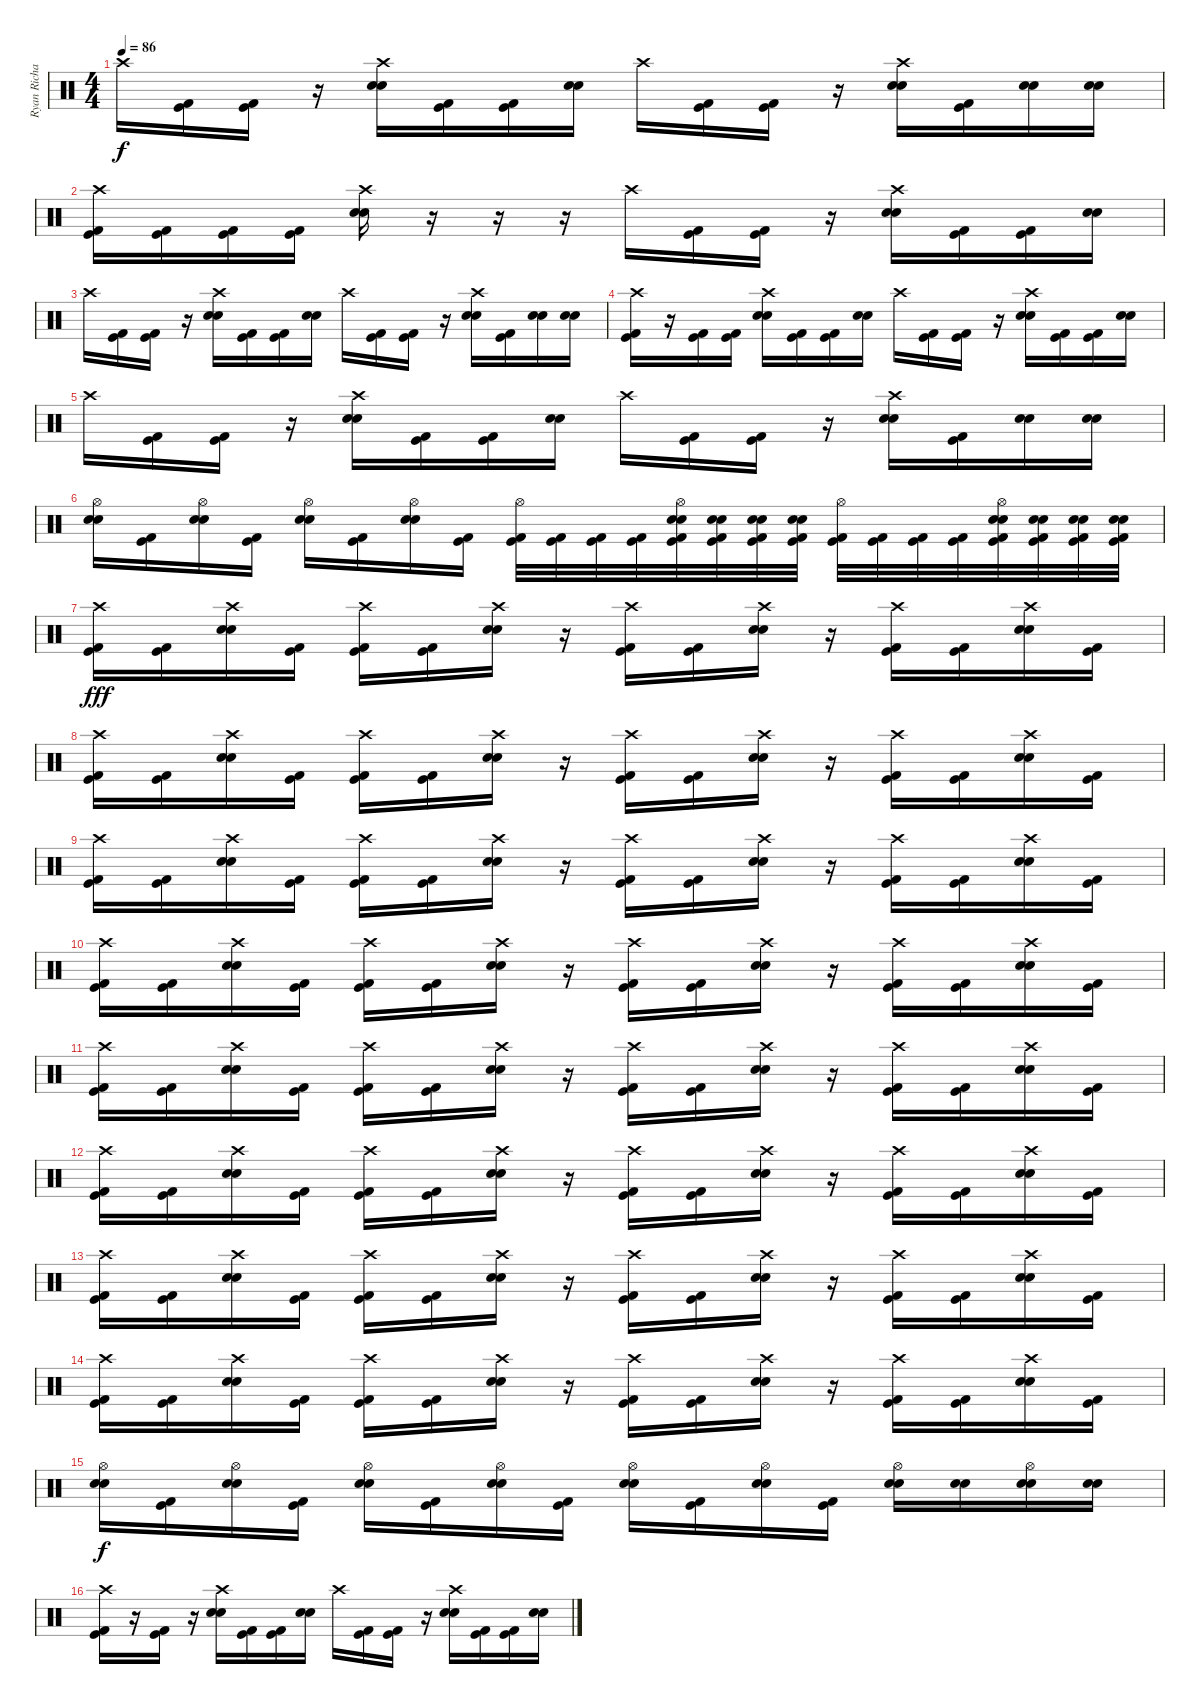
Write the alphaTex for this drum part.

\track ("Ryan Richards" "Ryan Richa") {instrument percussion}
\staff {score}
\articulation defaults
\ts (4 4)
\tempo 86
\clef neutral
\ks c "Crash high (hit)".16{dy f}
("Kick (hit)" "Kick (hit) 2").16 ("Kick (hit)" "Kick (hit) 2").16 r.16 ("Snare (hit) 2" "Crash high (hit)" "Electric Snare (hit)").16 ("Kick (hit)" "Kick (hit) 2").16 ("Kick (hit)" "Kick (hit) 2").16 ("Snare (hit) 2" "Electric Snare (hit)").16 "Crash high (hit)".16 ("Kick (hit)" "Kick (hit) 2").16 ("Kick (hit)" "Kick (hit) 2").16 r.16 ("Snare (hit) 2" "Crash high (hit)" "Electric Snare (hit)").16 ("Kick (hit)" "Kick (hit) 2").16 ("Snare (hit) 2" "Electric Snare (hit)").16 ("Snare (hit) 2" "Electric Snare (hit)").16 |
("Kick (hit)" "Crash high (hit)" "Kick (hit) 2").16 ("Kick (hit)" "Kick (hit) 2").16 ("Kick (hit)" "Kick (hit) 2").16 ("Kick (hit)" "Kick (hit) 2").16 ("Snare (hit) 2" "Crash high (hit)" "Electric Snare (hit)").16 r.16 r.16 r.16 "Crash high (hit)".16 ("Kick (hit)" "Kick (hit) 2").16 ("Kick (hit)" "Kick (hit) 2").16 r.16 ("Snare (hit) 2" "Crash high (hit)" "Electric Snare (hit)").16 ("Kick (hit)" "Kick (hit) 2").16 ("Kick (hit)" "Kick (hit) 2").16 ("Snare (hit) 2" "Electric Snare (hit)").16 |
"Crash high (hit)".16 ("Kick (hit)" "Kick (hit) 2").16 ("Kick (hit)" "Kick (hit) 2").16 r.16 ("Snare (hit) 2" "Crash high (hit)" "Electric Snare (hit)").16 ("Kick (hit)" "Kick (hit) 2").16 ("Kick (hit)" "Kick (hit) 2").16 ("Snare (hit) 2" "Electric Snare (hit)").16 "Crash high (hit)".16 ("Kick (hit)" "Kick (hit) 2").16 ("Kick (hit)" "Kick (hit) 2").16 r.16 ("Snare (hit) 2" "Crash high (hit)" "Electric Snare (hit)").16 ("Kick (hit)" "Kick (hit) 2").16 ("Snare (hit) 2" "Electric Snare (hit)").16 ("Snare (hit) 2" "Electric Snare (hit)").16 |
("Kick (hit)" "Crash high (hit)" "Kick (hit) 2").16 r.16 ("Kick (hit)" "Kick (hit) 2").16 ("Kick (hit)" "Kick (hit) 2").16 ("Snare (hit) 2" "Crash high (hit)" "Electric Snare (hit)").16 ("Kick (hit)" "Kick (hit) 2").16 ("Kick (hit)" "Kick (hit) 2").16 ("Snare (hit) 2" "Electric Snare (hit)").16 "Crash high (hit)".16 ("Kick (hit)" "Kick (hit) 2").16 ("Kick (hit)" "Kick (hit) 2").16 r.16 ("Snare (hit) 2" "Crash high (hit)" "Electric Snare (hit)").16 ("Kick (hit)" "Kick (hit) 2").16 ("Kick (hit)" "Kick (hit) 2").16 ("Snare (hit) 2" "Electric Snare (hit)").16 |
"Crash high (hit)".16 ("Kick (hit)" "Kick (hit) 2").16 ("Kick (hit)" "Kick (hit) 2").16 r.16 ("Snare (hit) 2" "Crash high (hit)" "Electric Snare (hit)").16 ("Kick (hit)" "Kick (hit) 2").16 ("Kick (hit)" "Kick (hit) 2").16 ("Snare (hit) 2" "Electric Snare (hit)").16 "Crash high (hit)".16 ("Kick (hit)" "Kick (hit) 2").16 ("Kick (hit)" "Kick (hit) 2").16 r.16 ("Snare (hit) 2" "Crash high (hit)" "Electric Snare (hit)").16 ("Kick (hit)" "Kick (hit) 2").16 ("Snare (hit) 2" "Electric Snare (hit)").16 ("Snare (hit) 2" "Electric Snare (hit)").16 |
("Snare (hit) 2" "Hi-Hat (open)" "Electric Snare (hit)").16 ("Kick (hit)" "Kick (hit) 2").16 ("Snare (hit) 2" "Hi-Hat (open)" "Electric Snare (hit)").16 ("Kick (hit)" "Kick (hit) 2").16 ("Snare (hit) 2" "Hi-Hat (open)" "Electric Snare (hit)").16 ("Kick (hit)" "Kick (hit) 2").16 ("Snare (hit) 2" "Hi-Hat (open)" "Electric Snare (hit)").16 ("Kick (hit)" "Kick (hit) 2").16 ("Kick (hit)" "Hi-Hat (open)" "Kick (hit) 2").32 ("Kick (hit)" "Kick (hit) 2").32 ("Kick (hit)" "Kick (hit) 2").32 ("Kick (hit)" "Kick (hit) 2").32 ("Kick (hit)" "Snare (hit) 2" "Hi-Hat (open)" "Electric Snare (hit)" "Kick (hit) 2").32 ("Kick (hit)" "Snare (hit) 2" "Electric Snare (hit)" "Kick (hit) 2").32 ("Kick (hit)" "Snare (hit) 2" "Electric Snare (hit)" "Kick (hit) 2").32 ("Kick (hit)" "Snare (hit) 2" "Electric Snare (hit)" "Kick (hit) 2").32 ("Kick (hit)" "Hi-Hat (open)" "Kick (hit) 2").32 ("Kick (hit)" "Kick (hit) 2").32 ("Kick (hit)" "Kick (hit) 2").32 ("Kick (hit)" "Kick (hit) 2").32 ("Kick (hit)" "Snare (hit) 2" "Hi-Hat (open)" "Electric Snare (hit)" "Kick (hit) 2").32 ("Kick (hit)" "Snare (hit) 2" "Electric Snare (hit)" "Kick (hit) 2").32 ("Kick (hit)" "Snare (hit) 2" "Electric Snare (hit)" "Kick (hit) 2").32 ("Kick (hit)" "Snare (hit) 2" "Electric Snare (hit)" "Kick (hit) 2").32 |
("Kick (hit)" "Crash high (hit)" "Kick (hit) 2").16{dy fff} ("Kick (hit)" "Kick (hit) 2").16 ("Snare (hit) 2" "Crash high (hit)" "Electric Snare (hit)").16 ("Kick (hit)" "Kick (hit) 2").16 ("Kick (hit)" "Crash high (hit)" "Kick (hit) 2").16 ("Kick (hit)" "Kick (hit) 2").16 ("Snare (hit) 2" "Crash high (hit)" "Electric Snare (hit)").16 r.16 ("Kick (hit)" "Crash high (hit)" "Kick (hit) 2").16 ("Kick (hit)" "Kick (hit) 2").16 ("Snare (hit) 2" "Crash high (hit)" "Electric Snare (hit)").16 r.16 ("Kick (hit)" "Crash high (hit)" "Kick (hit) 2").16 ("Kick (hit)" "Kick (hit) 2").16 ("Snare (hit) 2" "Crash high (hit)" "Electric Snare (hit)").16 ("Kick (hit)" "Kick (hit) 2").16 |
("Kick (hit)" "Crash high (hit)" "Kick (hit) 2").16 ("Kick (hit)" "Kick (hit) 2").16 ("Snare (hit) 2" "Crash high (hit)" "Electric Snare (hit)").16 ("Kick (hit)" "Kick (hit) 2").16 ("Kick (hit)" "Crash high (hit)" "Kick (hit) 2").16 ("Kick (hit)" "Kick (hit) 2").16 ("Snare (hit) 2" "Crash high (hit)" "Electric Snare (hit)").16 r.16 ("Kick (hit)" "Crash high (hit)" "Kick (hit) 2").16 ("Kick (hit)" "Kick (hit) 2").16 ("Snare (hit) 2" "Crash high (hit)" "Electric Snare (hit)").16 r.16 ("Kick (hit)" "Crash high (hit)" "Kick (hit) 2").16 ("Kick (hit)" "Kick (hit) 2").16 ("Snare (hit) 2" "Crash high (hit)" "Electric Snare (hit)").16 ("Kick (hit)" "Kick (hit) 2").16 |
("Kick (hit)" "Crash high (hit)" "Kick (hit) 2").16 ("Kick (hit)" "Kick (hit) 2").16 ("Snare (hit) 2" "Crash high (hit)" "Electric Snare (hit)").16 ("Kick (hit)" "Kick (hit) 2").16 ("Kick (hit)" "Crash high (hit)" "Kick (hit) 2").16 ("Kick (hit)" "Kick (hit) 2").16 ("Snare (hit) 2" "Crash high (hit)" "Electric Snare (hit)").16 r.16 ("Kick (hit)" "Crash high (hit)" "Kick (hit) 2").16 ("Kick (hit)" "Kick (hit) 2").16 ("Snare (hit) 2" "Crash high (hit)" "Electric Snare (hit)").16 r.16 ("Kick (hit)" "Crash high (hit)" "Kick (hit) 2").16 ("Kick (hit)" "Kick (hit) 2").16 ("Snare (hit) 2" "Crash high (hit)" "Electric Snare (hit)").16 ("Kick (hit)" "Kick (hit) 2").16 |
("Kick (hit)" "Crash high (hit)" "Kick (hit) 2").16 ("Kick (hit)" "Kick (hit) 2").16 ("Snare (hit) 2" "Crash high (hit)" "Electric Snare (hit)").16 ("Kick (hit)" "Kick (hit) 2").16 ("Kick (hit)" "Crash high (hit)" "Kick (hit) 2").16 ("Kick (hit)" "Kick (hit) 2").16 ("Snare (hit) 2" "Crash high (hit)" "Electric Snare (hit)").16 r.16 ("Kick (hit)" "Crash high (hit)" "Kick (hit) 2").16 ("Kick (hit)" "Kick (hit) 2").16 ("Snare (hit) 2" "Crash high (hit)" "Electric Snare (hit)").16 r.16 ("Kick (hit)" "Crash high (hit)" "Kick (hit) 2").16 ("Kick (hit)" "Kick (hit) 2").16 ("Snare (hit) 2" "Crash high (hit)" "Electric Snare (hit)").16 ("Kick (hit)" "Kick (hit) 2").16 |
("Kick (hit)" "Crash high (hit)" "Kick (hit) 2").16 ("Kick (hit)" "Kick (hit) 2").16 ("Snare (hit) 2" "Crash high (hit)" "Electric Snare (hit)").16 ("Kick (hit)" "Kick (hit) 2").16 ("Kick (hit)" "Crash high (hit)" "Kick (hit) 2").16 ("Kick (hit)" "Kick (hit) 2").16 ("Snare (hit) 2" "Crash high (hit)" "Electric Snare (hit)").16 r.16 ("Kick (hit)" "Crash high (hit)" "Kick (hit) 2").16 ("Kick (hit)" "Kick (hit) 2").16 ("Snare (hit) 2" "Crash high (hit)" "Electric Snare (hit)").16 r.16 ("Kick (hit)" "Crash high (hit)" "Kick (hit) 2").16 ("Kick (hit)" "Kick (hit) 2").16 ("Snare (hit) 2" "Crash high (hit)" "Electric Snare (hit)").16 ("Kick (hit)" "Kick (hit) 2").16 |
("Kick (hit)" "Crash high (hit)" "Kick (hit) 2").16 ("Kick (hit)" "Kick (hit) 2").16 ("Snare (hit) 2" "Crash high (hit)" "Electric Snare (hit)").16 ("Kick (hit)" "Kick (hit) 2").16 ("Kick (hit)" "Crash high (hit)" "Kick (hit) 2").16 ("Kick (hit)" "Kick (hit) 2").16 ("Snare (hit) 2" "Crash high (hit)" "Electric Snare (hit)").16 r.16 ("Kick (hit)" "Crash high (hit)" "Kick (hit) 2").16 ("Kick (hit)" "Kick (hit) 2").16 ("Snare (hit) 2" "Crash high (hit)" "Electric Snare (hit)").16 r.16 ("Kick (hit)" "Crash high (hit)" "Kick (hit) 2").16 ("Kick (hit)" "Kick (hit) 2").16 ("Snare (hit) 2" "Crash high (hit)" "Electric Snare (hit)").16 ("Kick (hit)" "Kick (hit) 2").16 |
("Kick (hit)" "Crash high (hit)" "Kick (hit) 2").16 ("Kick (hit)" "Kick (hit) 2").16 ("Snare (hit) 2" "Crash high (hit)" "Electric Snare (hit)").16 ("Kick (hit)" "Kick (hit) 2").16 ("Kick (hit)" "Crash high (hit)" "Kick (hit) 2").16 ("Kick (hit)" "Kick (hit) 2").16 ("Snare (hit) 2" "Crash high (hit)" "Electric Snare (hit)").16 r.16 ("Kick (hit)" "Crash high (hit)" "Kick (hit) 2").16 ("Kick (hit)" "Kick (hit) 2").16 ("Snare (hit) 2" "Crash high (hit)" "Electric Snare (hit)").16 r.16 ("Kick (hit)" "Crash high (hit)" "Kick (hit) 2").16 ("Kick (hit)" "Kick (hit) 2").16 ("Snare (hit) 2" "Crash high (hit)" "Electric Snare (hit)").16 ("Kick (hit)" "Kick (hit) 2").16 |
("Kick (hit)" "Crash high (hit)" "Kick (hit) 2").16 ("Kick (hit)" "Kick (hit) 2").16 ("Snare (hit) 2" "Crash high (hit)" "Electric Snare (hit)").16 ("Kick (hit)" "Kick (hit) 2").16 ("Kick (hit)" "Crash high (hit)" "Kick (hit) 2").16 ("Kick (hit)" "Kick (hit) 2").16 ("Snare (hit) 2" "Crash high (hit)" "Electric Snare (hit)").16 r.16 ("Kick (hit)" "Crash high (hit)" "Kick (hit) 2").16 ("Kick (hit)" "Kick (hit) 2").16 ("Snare (hit) 2" "Crash high (hit)" "Electric Snare (hit)").16 r.16 ("Kick (hit)" "Crash high (hit)" "Kick (hit) 2").16 ("Kick (hit)" "Kick (hit) 2").16 ("Snare (hit) 2" "Crash high (hit)" "Electric Snare (hit)").16 ("Kick (hit)" "Kick (hit) 2").16 |
("Snare (hit) 2" "Hi-Hat (open)" "Electric Snare (hit)").16{dy f} ("Kick (hit)" "Kick (hit) 2").16 ("Snare (hit) 2" "Hi-Hat (open)" "Electric Snare (hit)").16 ("Kick (hit)" "Kick (hit) 2").16 ("Snare (hit) 2" "Hi-Hat (open)" "Electric Snare (hit)").16 ("Kick (hit)" "Kick (hit) 2").16 ("Snare (hit) 2" "Hi-Hat (open)" "Electric Snare (hit)").16 ("Kick (hit)" "Kick (hit) 2").16 ("Snare (hit) 2" "Hi-Hat (open)" "Electric Snare (hit)").16 ("Kick (hit)" "Kick (hit) 2").16 ("Snare (hit) 2" "Hi-Hat (open)" "Electric Snare (hit)").16 ("Kick (hit)" "Kick (hit) 2").16 ("Snare (hit) 2" "Hi-Hat (open)" "Electric Snare (hit)").16 ("Snare (hit) 2" "Electric Snare (hit)").16 ("Snare (hit) 2" "Hi-Hat (open)" "Electric Snare (hit)").16 ("Snare (hit) 2" "Electric Snare (hit)").16 |
("Kick (hit)" "Crash high (hit)" "Kick (hit) 2").16 r.16 ("Kick (hit)" "Kick (hit) 2").16 r.16 ("Snare (hit) 2" "Crash high (hit)" "Electric Snare (hit)").16 ("Kick (hit)" "Kick (hit) 2").16 ("Kick (hit)" "Kick (hit) 2").16 ("Snare (hit) 2" "Electric Snare (hit)").16 "Crash high (hit)".16 ("Kick (hit)" "Kick (hit) 2").16 ("Kick (hit)" "Kick (hit) 2").16 r.16 ("Snare (hit) 2" "Crash high (hit)" "Electric Snare (hit)").16 ("Kick (hit)" "Kick (hit) 2").16 ("Kick (hit)" "Kick (hit) 2").16 ("Snare (hit) 2" "Electric Snare (hit)").16
